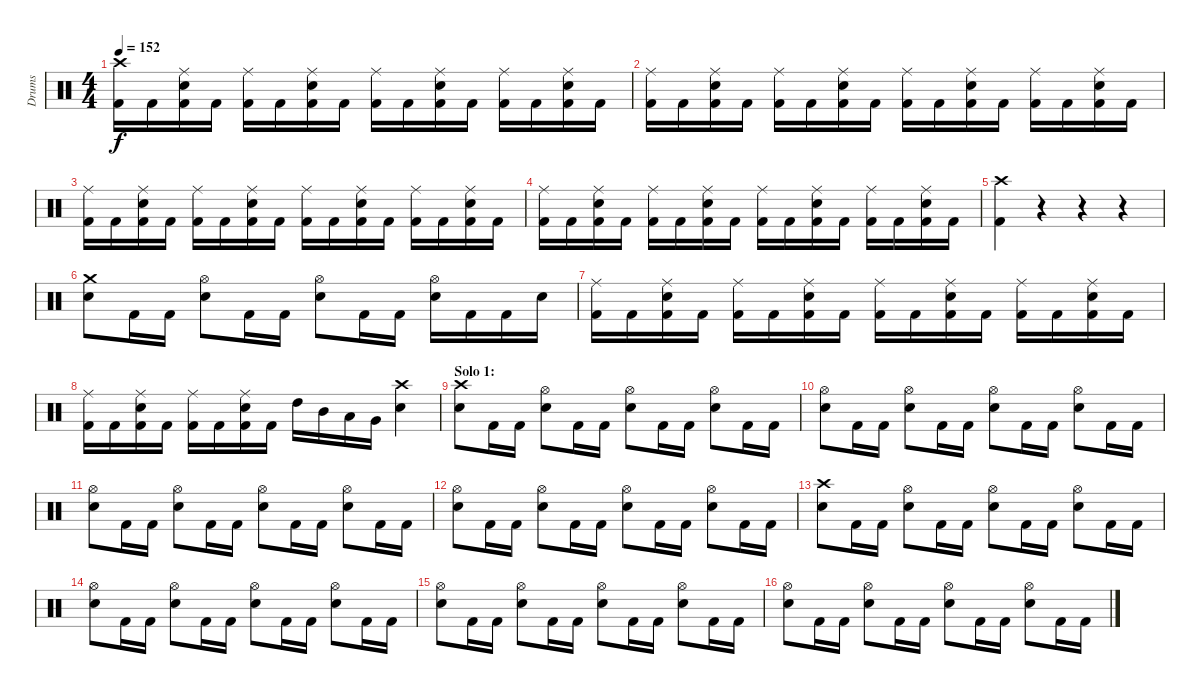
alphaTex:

\track ("Drums" "Drums") {instrument percussion}
\staff {score}
\articulation defaults
\ts (4 4)
\tempo 152
\clef neutral
\ks c
("Crash high (hit)" "Kick (hit) 2").16{dy f} "Kick (hit) 2".16 ("Ride (middle)" "Electric Snare (hit)" "Kick (hit) 2").16 "Kick (hit) 2".16 ("Ride (middle)" "Kick (hit) 2").16 "Kick (hit) 2".16 ("Ride (middle)" "Electric Snare (hit)" "Kick (hit) 2").16 "Kick (hit) 2".16 ("Ride (middle)" "Kick (hit) 2").16 "Kick (hit) 2".16 ("Ride (middle)" "Electric Snare (hit)" "Kick (hit) 2").16 "Kick (hit) 2".16 ("Ride (middle)" "Kick (hit) 2").16 "Kick (hit) 2".16 ("Ride (middle)" "Electric Snare (hit)" "Kick (hit) 2").16 "Kick (hit) 2".16 |
("Ride (middle)" "Kick (hit) 2").16 "Kick (hit) 2".16 ("Ride (middle)" "Electric Snare (hit)" "Kick (hit) 2").16 "Kick (hit) 2".16 ("Ride (middle)" "Kick (hit) 2").16 "Kick (hit) 2".16 ("Ride (middle)" "Electric Snare (hit)" "Kick (hit) 2").16 "Kick (hit) 2".16 ("Ride (middle)" "Kick (hit) 2").16 "Kick (hit) 2".16 ("Ride (middle)" "Electric Snare (hit)" "Kick (hit) 2").16 "Kick (hit) 2".16 ("Ride (middle)" "Kick (hit) 2").16 "Kick (hit) 2".16 ("Ride (middle)" "Electric Snare (hit)" "Kick (hit) 2").16 "Kick (hit) 2".16 |
("Ride (middle)" "Kick (hit) 2").16 "Kick (hit) 2".16 ("Ride (middle)" "Electric Snare (hit)" "Kick (hit) 2").16 "Kick (hit) 2".16 ("Ride (middle)" "Kick (hit) 2").16 "Kick (hit) 2".16 ("Ride (middle)" "Electric Snare (hit)" "Kick (hit) 2").16 "Kick (hit) 2".16 ("Ride (middle)" "Kick (hit) 2").16 "Kick (hit) 2".16 ("Ride (middle)" "Electric Snare (hit)" "Kick (hit) 2").16 "Kick (hit) 2".16 ("Ride (middle)" "Kick (hit) 2").16 "Kick (hit) 2".16 ("Ride (middle)" "Electric Snare (hit)" "Kick (hit) 2").16 "Kick (hit) 2".16 |
("Ride (middle)" "Kick (hit) 2").16 "Kick (hit) 2".16 ("Ride (middle)" "Electric Snare (hit)" "Kick (hit) 2").16 "Kick (hit) 2".16 ("Ride (middle)" "Kick (hit) 2").16 "Kick (hit) 2".16 ("Ride (middle)" "Electric Snare (hit)" "Kick (hit) 2").16 "Kick (hit) 2".16 ("Ride (middle)" "Kick (hit) 2").16 "Kick (hit) 2".16 ("Ride (middle)" "Electric Snare (hit)" "Kick (hit) 2").16 "Kick (hit) 2".16 ("Ride (middle)" "Kick (hit) 2").16 "Kick (hit) 2".16 ("Ride (middle)" "Electric Snare (hit)" "Kick (hit) 2").16 "Kick (hit) 2".16 |
("Crash high (hit)" "Kick (hit) 2").4 r.4 r.4 r.4 |
("Crash medium (hit)" "Electric Snare (hit)").8 "Kick (hit) 2".16 "Kick (hit) 2".16 ("Hi-Hat (open)" "Electric Snare (hit)").8 "Kick (hit) 2".16 "Kick (hit) 2".16 ("Hi-Hat (open)" "Electric Snare (hit)").8 "Kick (hit) 2".16 "Kick (hit) 2".16 ("Hi-Hat (open)" "Electric Snare (hit)").16 "Kick (hit) 2".16 "Kick (hit) 2".16 "Electric Snare (hit)".16 |
("Ride (middle)" "Kick (hit) 2").16 "Kick (hit) 2".16 ("Ride (middle)" "Electric Snare (hit)" "Kick (hit) 2").16 "Kick (hit) 2".16 ("Ride (middle)" "Kick (hit) 2").16 "Kick (hit) 2".16 ("Ride (middle)" "Electric Snare (hit)" "Kick (hit) 2").16 "Kick (hit) 2".16 ("Ride (middle)" "Kick (hit) 2").16 "Kick (hit) 2".16 ("Ride (middle)" "Electric Snare (hit)" "Kick (hit) 2").16 "Kick (hit) 2".16 ("Ride (middle)" "Kick (hit) 2").16 "Kick (hit) 2".16 ("Ride (middle)" "Electric Snare (hit)" "Kick (hit) 2").16 "Kick (hit) 2".16 |
("Ride (middle)" "Kick (hit) 2").16 "Kick (hit) 2".16 ("Ride (middle)" "Electric Snare (hit)" "Kick (hit) 2").16 "Kick (hit) 2".16 ("Ride (middle)" "Kick (hit) 2").16 "Kick (hit) 2".16 ("Ride (middle)" "Electric Snare (hit)" "Kick (hit) 2").16 "Kick (hit) 2".16 "High Tom (hit)".16 "Mid Tom (hit)".16 "Low Tom (hit)".16 "Very Low Tom (hit)".16 ("Crash high (hit)" "Electric Snare (hit)").4 |
\section ("" "Solo 1:")
("Crash high (hit)" "Electric Snare (hit)").8 "Kick (hit) 2".16 "Kick (hit) 2".16 ("Hi-Hat (open)" "Electric Snare (hit)").8 "Kick (hit) 2".16 "Kick (hit) 2".16 ("Hi-Hat (open)" "Electric Snare (hit)").8 "Kick (hit) 2".16 "Kick (hit) 2".16 ("Hi-Hat (open)" "Electric Snare (hit)").8 "Kick (hit) 2".16 "Kick (hit) 2".16 |
("Hi-Hat (open)" "Electric Snare (hit)").8 "Kick (hit) 2".16 "Kick (hit) 2".16 ("Hi-Hat (open)" "Electric Snare (hit)").8 "Kick (hit) 2".16 "Kick (hit) 2".16 ("Hi-Hat (open)" "Electric Snare (hit)").8 "Kick (hit) 2".16 "Kick (hit) 2".16 ("Hi-Hat (open)" "Electric Snare (hit)").8 "Kick (hit) 2".16 "Kick (hit) 2".16 |
("Hi-Hat (open)" "Electric Snare (hit)").8 "Kick (hit) 2".16 "Kick (hit) 2".16 ("Hi-Hat (open)" "Electric Snare (hit)").8 "Kick (hit) 2".16 "Kick (hit) 2".16 ("Hi-Hat (open)" "Electric Snare (hit)").8 "Kick (hit) 2".16 "Kick (hit) 2".16 ("Hi-Hat (open)" "Electric Snare (hit)").8 "Kick (hit) 2".16 "Kick (hit) 2".16 |
("Hi-Hat (open)" "Electric Snare (hit)").8 "Kick (hit) 2".16 "Kick (hit) 2".16 ("Hi-Hat (open)" "Electric Snare (hit)").8 "Kick (hit) 2".16 "Kick (hit) 2".16 ("Hi-Hat (open)" "Electric Snare (hit)").8 "Kick (hit) 2".16 "Kick (hit) 2".16 ("Hi-Hat (open)" "Electric Snare (hit)").8 "Kick (hit) 2".16 "Kick (hit) 2".16 |
("Crash high (hit)" "Electric Snare (hit)").8 "Kick (hit) 2".16 "Kick (hit) 2".16 ("Hi-Hat (open)" "Electric Snare (hit)").8 "Kick (hit) 2".16 "Kick (hit) 2".16 ("Hi-Hat (open)" "Electric Snare (hit)").8 "Kick (hit) 2".16 "Kick (hit) 2".16 ("Hi-Hat (open)" "Electric Snare (hit)").8 "Kick (hit) 2".16 "Kick (hit) 2".16 |
("Hi-Hat (open)" "Electric Snare (hit)").8 "Kick (hit) 2".16 "Kick (hit) 2".16 ("Hi-Hat (open)" "Electric Snare (hit)").8 "Kick (hit) 2".16 "Kick (hit) 2".16 ("Hi-Hat (open)" "Electric Snare (hit)").8 "Kick (hit) 2".16 "Kick (hit) 2".16 ("Hi-Hat (open)" "Electric Snare (hit)").8 "Kick (hit) 2".16 "Kick (hit) 2".16 |
("Hi-Hat (open)" "Electric Snare (hit)").8 "Kick (hit) 2".16 "Kick (hit) 2".16 ("Hi-Hat (open)" "Electric Snare (hit)").8 "Kick (hit) 2".16 "Kick (hit) 2".16 ("Hi-Hat (open)" "Electric Snare (hit)").8 "Kick (hit) 2".16 "Kick (hit) 2".16 ("Hi-Hat (open)" "Electric Snare (hit)").8 "Kick (hit) 2".16 "Kick (hit) 2".16 |
("Hi-Hat (open)" "Electric Snare (hit)").8 "Kick (hit) 2".16 "Kick (hit) 2".16 ("Hi-Hat (open)" "Electric Snare (hit)").8 "Kick (hit) 2".16 "Kick (hit) 2".16 ("Hi-Hat (open)" "Electric Snare (hit)").8 "Kick (hit) 2".16 "Kick (hit) 2".16 ("Hi-Hat (open)" "Electric Snare (hit)").8 "Kick (hit) 2".16 "Kick (hit) 2".16
